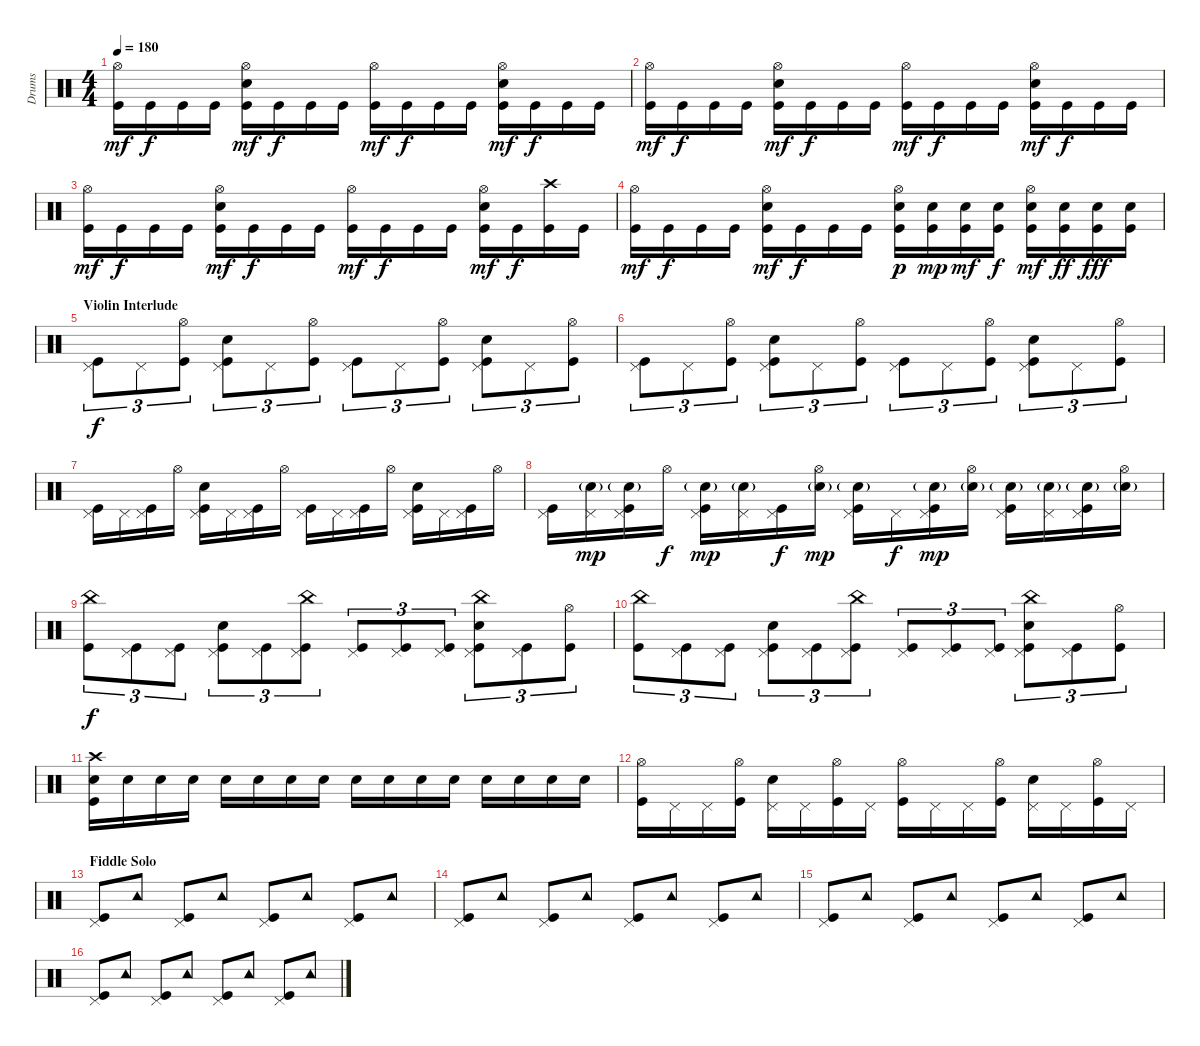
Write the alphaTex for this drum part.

\track ("Drums" "Drums") {instrument percussion}
\staff {score}
\articulation defaults
\ts (4 4)
\tempo 180
\clef neutral
\ks c
("Hi-Hat (open)" "Kick (hit)").16{dy mf} "Kick (hit)".16{dy f} "Kick (hit)".16 "Kick (hit)".16 ("Hi-Hat (open)" "Electric Snare (hit)" "Kick (hit)").16{dy mf} "Kick (hit)".16{dy f} "Kick (hit)".16 "Kick (hit)".16 ("Hi-Hat (open)" "Kick (hit)").16{dy mf} "Kick (hit)".16{dy f} "Kick (hit)".16 "Kick (hit)".16 ("Hi-Hat (open)" "Electric Snare (hit)" "Kick (hit)").16{dy mf} "Kick (hit)".16{dy f} "Kick (hit)".16 "Kick (hit)".16 |
("Hi-Hat (open)" "Kick (hit)").16{dy mf} "Kick (hit)".16{dy f} "Kick (hit)".16 "Kick (hit)".16 ("Hi-Hat (open)" "Electric Snare (hit)" "Kick (hit)").16{dy mf} "Kick (hit)".16{dy f} "Kick (hit)".16 "Kick (hit)".16 ("Hi-Hat (open)" "Kick (hit)").16{dy mf} "Kick (hit)".16{dy f} "Kick (hit)".16 "Kick (hit)".16 ("Hi-Hat (open)" "Electric Snare (hit)" "Kick (hit)").16{dy mf} "Kick (hit)".16{dy f} "Kick (hit)".16 "Kick (hit)".16 |
("Hi-Hat (open)" "Kick (hit)").16{dy mf} "Kick (hit)".16{dy f} "Kick (hit)".16 "Kick (hit)".16 ("Hi-Hat (open)" "Electric Snare (hit)" "Kick (hit)").16{dy mf} "Kick (hit)".16{dy f} "Kick (hit)".16 "Kick (hit)".16 ("Hi-Hat (open)" "Kick (hit)").16{dy mf} "Kick (hit)".16{dy f} "Kick (hit)".16 "Kick (hit)".16 ("Hi-Hat (open)" "Electric Snare (hit)" "Kick (hit)").16{dy mf} "Kick (hit)".16{dy f} ("Crash high (hit)" "Kick (hit)").16 "Kick (hit)".16 |
("Hi-Hat (open)" "Kick (hit)").16{dy mf} "Kick (hit)".16{dy f} "Kick (hit)".16 "Kick (hit)".16 ("Hi-Hat (open)" "Electric Snare (hit)" "Kick (hit)").16{dy mf} "Kick (hit)".16{dy f} "Kick (hit)".16 "Kick (hit)".16 ("Hi-Hat (open)" "Electric Snare (hit)" "Kick (hit)").16{dy p} ("Electric Snare (hit)" "Kick (hit)").16{dy mp} ("Electric Snare (hit)" "Kick (hit)").16{dy mf} ("Electric Snare (hit)" "Kick (hit)").16{dy f} ("Hi-Hat (open)" "Electric Snare (hit)" "Kick (hit)").16{dy mf} ("Electric Snare (hit)" "Kick (hit)").16{dy ff} ("Electric Snare (hit)" "Kick (hit)").16{dy fff} ("Electric Snare (hit)" "Kick (hit)").16 |
\section ("" "Violin Interlude")
("Pedal Hi-Hat (hit)" "Kick (hit)").8{tu (3 2) dy f} "Pedal Hi-Hat (hit)".8{tu (3 2)} ("Hi-Hat (open)" "Kick (hit)").8{tu (3 2)} ("Pedal Hi-Hat (hit)" "Electric Snare (hit)" "Kick (hit)").8{tu (3 2)} "Pedal Hi-Hat (hit)".8{tu (3 2)} ("Hi-Hat (open)" "Kick (hit)").8{tu (3 2)} ("Pedal Hi-Hat (hit)" "Kick (hit)").8{tu (3 2)} "Pedal Hi-Hat (hit)".8{tu (3 2)} ("Hi-Hat (open)" "Kick (hit)").8{tu (3 2)} ("Pedal Hi-Hat (hit)" "Electric Snare (hit)" "Kick (hit)").8{tu (3 2)} "Pedal Hi-Hat (hit)".8{tu (3 2)} ("Hi-Hat (open)" "Kick (hit)").8{tu (3 2)} |
("Pedal Hi-Hat (hit)" "Kick (hit)").8{tu (3 2)} "Pedal Hi-Hat (hit)".8{tu (3 2)} ("Hi-Hat (open)" "Kick (hit)").8{tu (3 2)} ("Pedal Hi-Hat (hit)" "Electric Snare (hit)" "Kick (hit)").8{tu (3 2)} "Pedal Hi-Hat (hit)".8{tu (3 2)} ("Hi-Hat (open)" "Kick (hit)").8{tu (3 2)} ("Pedal Hi-Hat (hit)" "Kick (hit)").8{tu (3 2)} "Pedal Hi-Hat (hit)".8{tu (3 2)} ("Hi-Hat (open)" "Kick (hit)").8{tu (3 2)} ("Pedal Hi-Hat (hit)" "Electric Snare (hit)" "Kick (hit)").8{tu (3 2)} "Pedal Hi-Hat (hit)".8{tu (3 2)} ("Hi-Hat (open)" "Kick (hit)").8{tu (3 2)} |
("Pedal Hi-Hat (hit)" "Kick (hit)").16 "Pedal Hi-Hat (hit)".16 ("Pedal Hi-Hat (hit)" "Kick (hit)").16 "Hi-Hat (open)".16 ("Pedal Hi-Hat (hit)" "Electric Snare (hit)" "Kick (hit)").16 "Pedal Hi-Hat (hit)".16 ("Pedal Hi-Hat (hit)" "Kick (hit)").16 "Hi-Hat (open)".16 ("Pedal Hi-Hat (hit)" "Kick (hit)").16 "Pedal Hi-Hat (hit)".16 ("Pedal Hi-Hat (hit)" "Kick (hit)").16 "Hi-Hat (open)".16 ("Pedal Hi-Hat (hit)" "Electric Snare (hit)" "Kick (hit)").16 "Pedal Hi-Hat (hit)".16 ("Pedal Hi-Hat (hit)" "Kick (hit)").16 "Hi-Hat (open)".16 |
("Pedal Hi-Hat (hit)" "Kick (hit)").16 ("Pedal Hi-Hat (hit)" "Electric Snare (hit)"{g}).16{dy mp} ("Pedal Hi-Hat (hit)" "Electric Snare (hit)"{g} "Kick (hit)").16 "Hi-Hat (open)".16{dy f} ("Pedal Hi-Hat (hit)" "Electric Snare (hit)"{g} "Kick (hit)").16{dy mp} ("Pedal Hi-Hat (hit)" "Electric Snare (hit)"{g}).16 ("Pedal Hi-Hat (hit)" "Kick (hit)").16{dy f} ("Hi-Hat (open)" "Electric Snare (hit)"{g}).16{dy mp} ("Pedal Hi-Hat (hit)" "Electric Snare (hit)"{g} "Kick (hit)").16 "Pedal Hi-Hat (hit)".16{dy f} ("Pedal Hi-Hat (hit)" "Electric Snare (hit)"{g} "Kick (hit)").16{dy mp} ("Hi-Hat (open)" "Electric Snare (hit)"{g}).16 ("Pedal Hi-Hat (hit)" "Electric Snare (hit)"{g} "Kick (hit)").16 ("Pedal Hi-Hat (hit)" "Electric Snare (hit)"{g}).16 ("Pedal Hi-Hat (hit)" "Electric Snare (hit)"{g} "Kick (hit)").16 ("Hi-Hat (open)" "Electric Snare (hit)"{g}).16 |
("China (hit)" "Kick (hit)").8{tu (3 2) dy f} ("Pedal Hi-Hat (hit)" "Kick (hit)").8{tu (3 2)} ("Pedal Hi-Hat (hit)" "Kick (hit)").8{tu (3 2)} ("Pedal Hi-Hat (hit)" "Electric Snare (hit)" "Kick (hit)").8{tu (3 2)} ("Pedal Hi-Hat (hit)" "Kick (hit)").8{tu (3 2)} ("China (hit)" "Pedal Hi-Hat (hit)" "Kick (hit)").8{tu (3 2)} ("Pedal Hi-Hat (hit)" "Kick (hit)").8{tu (3 2)} ("Pedal Hi-Hat (hit)" "Kick (hit)").8{tu (3 2)} ("Pedal Hi-Hat (hit)" "Kick (hit)").8{tu (3 2)} ("China (hit)" "Pedal Hi-Hat (hit)" "Electric Snare (hit)" "Kick (hit)").8{tu (3 2)} ("Pedal Hi-Hat (hit)" "Kick (hit)").8{tu (3 2)} ("Hi-Hat (open)" "Kick (hit)").8{tu (3 2)} |
("China (hit)" "Kick (hit)").8{tu (3 2)} ("Pedal Hi-Hat (hit)" "Kick (hit)").8{tu (3 2)} ("Pedal Hi-Hat (hit)" "Kick (hit)").8{tu (3 2)} ("Pedal Hi-Hat (hit)" "Electric Snare (hit)" "Kick (hit)").8{tu (3 2)} ("Pedal Hi-Hat (hit)" "Kick (hit)").8{tu (3 2)} ("China (hit)" "Pedal Hi-Hat (hit)" "Kick (hit)").8{tu (3 2)} ("Pedal Hi-Hat (hit)" "Kick (hit)").8{tu (3 2)} ("Pedal Hi-Hat (hit)" "Kick (hit)").8{tu (3 2)} ("Pedal Hi-Hat (hit)" "Kick (hit)").8{tu (3 2)} ("China (hit)" "Pedal Hi-Hat (hit)" "Electric Snare (hit)" "Kick (hit)").8{tu (3 2)} ("Pedal Hi-Hat (hit)" "Kick (hit)").8{tu (3 2)} ("Hi-Hat (open)" "Kick (hit)").8{tu (3 2)} |
("Crash high (hit)" "Electric Snare (hit)" "Kick (hit)").16 "Electric Snare (hit)".16 "Electric Snare (hit)".16 "Electric Snare (hit)".16 "Electric Snare (hit)".16 "Electric Snare (hit)".16 "Electric Snare (hit)".16 "Electric Snare (hit)".16 "Electric Snare (hit)".16 "Electric Snare (hit)".16 "Electric Snare (hit)".16 "Electric Snare (hit)".16 "Electric Snare (hit)".16 "Electric Snare (hit)".16 "Electric Snare (hit)".16 "Electric Snare (hit)".16 |
("Hi-Hat (open)" "Kick (hit)").16 "Pedal Hi-Hat (hit)".16 "Pedal Hi-Hat (hit)".16 ("Hi-Hat (open)" "Kick (hit)").16 ("Pedal Hi-Hat (hit)" "Electric Snare (hit)").16 "Pedal Hi-Hat (hit)".16 ("Hi-Hat (open)" "Kick (hit)").16 "Pedal Hi-Hat (hit)".16 ("Hi-Hat (open)" "Kick (hit)").16 "Pedal Hi-Hat (hit)".16 "Pedal Hi-Hat (hit)".16 ("Hi-Hat (open)" "Kick (hit)").16 ("Pedal Hi-Hat (hit)" "Electric Snare (hit)").16 "Pedal Hi-Hat (hit)".16 ("Hi-Hat (open)" "Kick (hit)").16 "Pedal Hi-Hat (hit)".16 |
\section ("" "Fiddle Solo")
("Pedal Hi-Hat (hit)" "Kick (hit)").8 "Tambourine (hit)".8 ("Pedal Hi-Hat (hit)" "Kick (hit)").8 "Tambourine (hit)".8 ("Pedal Hi-Hat (hit)" "Kick (hit)").8 "Tambourine (hit)".8 ("Pedal Hi-Hat (hit)" "Kick (hit)").8 "Tambourine (hit)".8 |
("Pedal Hi-Hat (hit)" "Kick (hit)").8 "Tambourine (hit)".8 ("Pedal Hi-Hat (hit)" "Kick (hit)").8 "Tambourine (hit)".8 ("Pedal Hi-Hat (hit)" "Kick (hit)").8 "Tambourine (hit)".8 ("Pedal Hi-Hat (hit)" "Kick (hit)").8 "Tambourine (hit)".8 |
("Pedal Hi-Hat (hit)" "Kick (hit)").8 "Tambourine (hit)".8 ("Pedal Hi-Hat (hit)" "Kick (hit)").8 "Tambourine (hit)".8 ("Pedal Hi-Hat (hit)" "Kick (hit)").8 "Tambourine (hit)".8 ("Pedal Hi-Hat (hit)" "Kick (hit)").8 "Tambourine (hit)".8 |
("Pedal Hi-Hat (hit)" "Kick (hit)").8 "Tambourine (hit)".8 ("Pedal Hi-Hat (hit)" "Kick (hit)").8 "Tambourine (hit)".8 ("Pedal Hi-Hat (hit)" "Kick (hit)").8 "Tambourine (hit)".8 ("Pedal Hi-Hat (hit)" "Kick (hit)").8 "Tambourine (hit)".8
